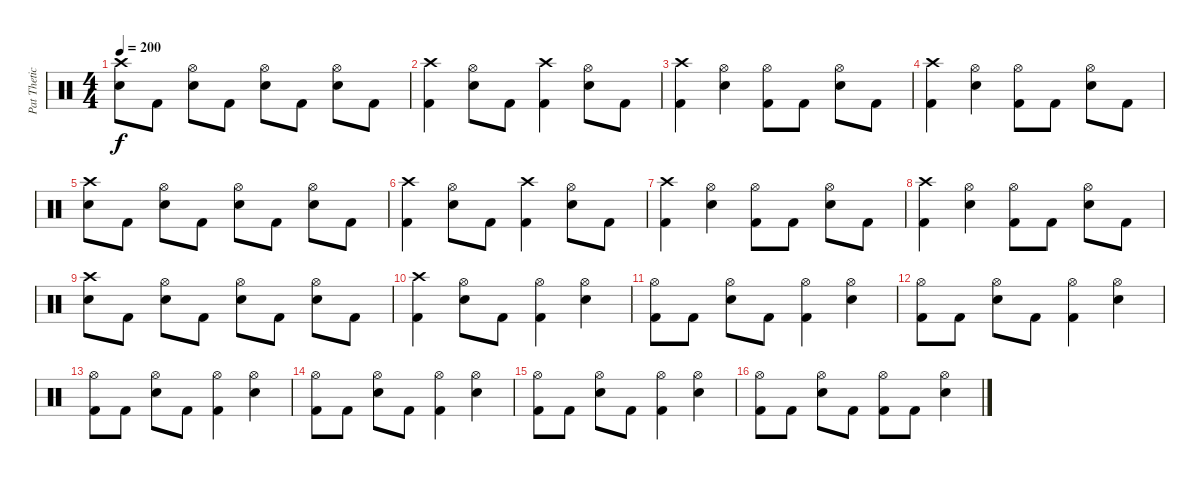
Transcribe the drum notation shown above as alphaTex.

\track ("Pat Thetic (Drums)" "Pat Thetic") {instrument percussion}
\staff {score}
\articulation defaults
\ts (4 4)
\tempo 200
\clef neutral
\ks c
("Crash high (hit)" "Electric Snare (hit)").8{dy f} "Kick (hit) 2".8 ("Hi-Hat (open)" "Electric Snare (hit)").8 "Kick (hit) 2".8 ("Hi-Hat (open)" "Electric Snare (hit)").8 "Kick (hit) 2".8 ("Hi-Hat (open)" "Electric Snare (hit)").8 "Kick (hit) 2".8 |
("Crash high (hit)" "Kick (hit) 2").4 ("Hi-Hat (open)" "Electric Snare (hit)").8 "Kick (hit) 2".8 ("Crash high (hit)" "Kick (hit) 2").4 ("Hi-Hat (open)" "Electric Snare (hit)").8 "Kick (hit) 2".8 |
("Crash high (hit)" "Kick (hit) 2").4 ("Hi-Hat (open)" "Electric Snare (hit)").4 ("Hi-Hat (open)" "Kick (hit) 2").8 "Kick (hit) 2".8 ("Hi-Hat (open)" "Electric Snare (hit)").8 "Kick (hit) 2".8 |
("Crash high (hit)" "Kick (hit) 2").4 ("Hi-Hat (open)" "Electric Snare (hit)").4 ("Hi-Hat (open)" "Kick (hit) 2").8 "Kick (hit) 2".8 ("Hi-Hat (open)" "Electric Snare (hit)").8 "Kick (hit) 2".8 |
("Crash high (hit)" "Electric Snare (hit)").8 "Kick (hit) 2".8 ("Hi-Hat (open)" "Electric Snare (hit)").8 "Kick (hit) 2".8 ("Hi-Hat (open)" "Electric Snare (hit)").8 "Kick (hit) 2".8 ("Hi-Hat (open)" "Electric Snare (hit)").8 "Kick (hit) 2".8 |
("Crash high (hit)" "Kick (hit) 2").4 ("Hi-Hat (open)" "Electric Snare (hit)").8 "Kick (hit) 2".8 ("Crash high (hit)" "Kick (hit) 2").4 ("Hi-Hat (open)" "Electric Snare (hit)").8 "Kick (hit) 2".8 |
("Crash high (hit)" "Kick (hit) 2").4 ("Hi-Hat (open)" "Electric Snare (hit)").4 ("Hi-Hat (open)" "Kick (hit) 2").8 "Kick (hit) 2".8 ("Hi-Hat (open)" "Electric Snare (hit)").8 "Kick (hit) 2".8 |
("Crash high (hit)" "Kick (hit) 2").4 ("Hi-Hat (open)" "Electric Snare (hit)").4 ("Hi-Hat (open)" "Kick (hit) 2").8 "Kick (hit) 2".8 ("Hi-Hat (open)" "Electric Snare (hit)").8 "Kick (hit) 2".8 |
("Crash high (hit)" "Electric Snare (hit)").8 "Kick (hit) 2".8 ("Hi-Hat (open)" "Electric Snare (hit)").8 "Kick (hit) 2".8 ("Hi-Hat (open)" "Electric Snare (hit)").8 "Kick (hit) 2".8 ("Hi-Hat (open)" "Electric Snare (hit)").8 "Kick (hit) 2".8 |
("Crash high (hit)" "Kick (hit) 2").4 ("Hi-Hat (open)" "Electric Snare (hit)").8 "Kick (hit) 2".8 ("Hi-Hat (open)" "Kick (hit) 2").4 ("Hi-Hat (open)" "Electric Snare (hit)").4 |
("Hi-Hat (open)" "Kick (hit) 2").8 "Kick (hit) 2".8 ("Hi-Hat (open)" "Electric Snare (hit)").8 "Kick (hit) 2".8 ("Hi-Hat (open)" "Kick (hit) 2").4 ("Hi-Hat (open)" "Electric Snare (hit)").4 |
("Hi-Hat (open)" "Kick (hit) 2").8 "Kick (hit) 2".8 ("Hi-Hat (open)" "Electric Snare (hit)").8 "Kick (hit) 2".8 ("Hi-Hat (open)" "Kick (hit) 2").4 ("Hi-Hat (open)" "Electric Snare (hit)").4 |
("Hi-Hat (open)" "Kick (hit) 2").8 "Kick (hit) 2".8 ("Hi-Hat (open)" "Electric Snare (hit)").8 "Kick (hit) 2".8 ("Hi-Hat (open)" "Kick (hit) 2").4 ("Hi-Hat (open)" "Electric Snare (hit)").4 |
("Hi-Hat (open)" "Kick (hit) 2").8 "Kick (hit) 2".8 ("Hi-Hat (open)" "Electric Snare (hit)").8 "Kick (hit) 2".8 ("Hi-Hat (open)" "Kick (hit) 2").4 ("Hi-Hat (open)" "Electric Snare (hit)").4 |
("Hi-Hat (open)" "Kick (hit) 2").8 "Kick (hit) 2".8 ("Hi-Hat (open)" "Electric Snare (hit)").8 "Kick (hit) 2".8 ("Hi-Hat (open)" "Kick (hit) 2").4 ("Hi-Hat (open)" "Electric Snare (hit)").4 |
("Hi-Hat (open)" "Kick (hit) 2").8 "Kick (hit) 2".8 ("Hi-Hat (open)" "Electric Snare (hit)").8 "Kick (hit) 2".8 ("Hi-Hat (open)" "Kick (hit) 2").8 "Kick (hit) 2".8 ("Hi-Hat (open)" "Electric Snare (hit)").4
